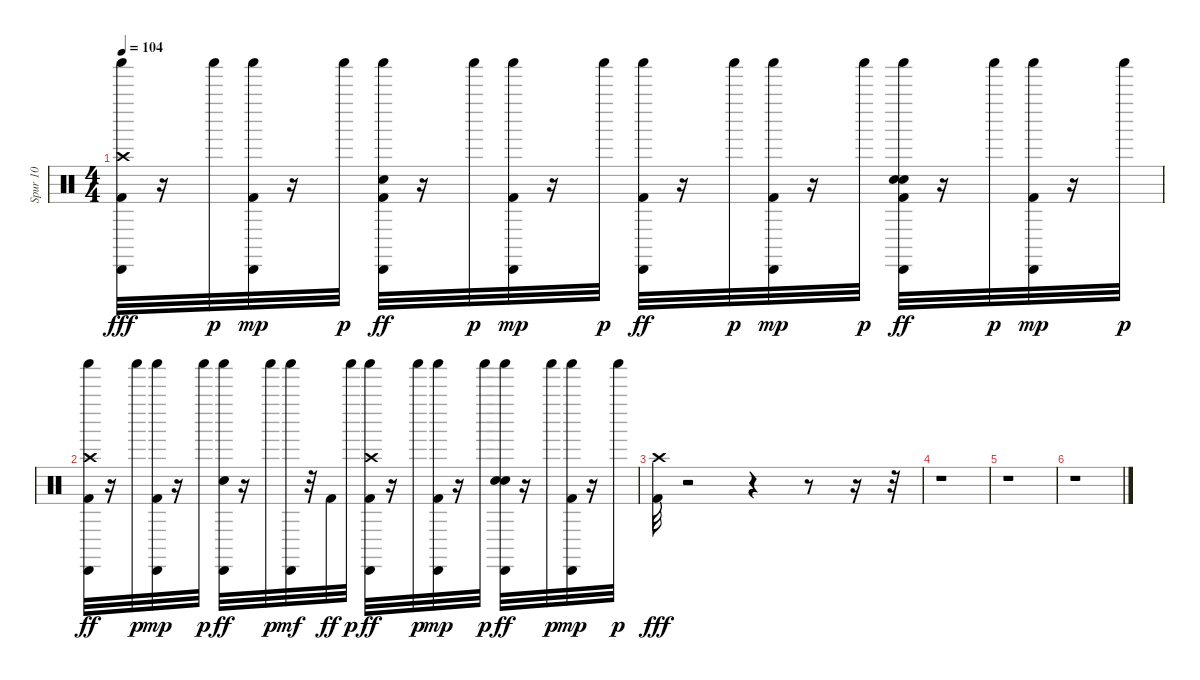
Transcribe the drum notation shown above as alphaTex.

\track ("Spur 10" "Spur 10") {instrument percussion}
\staff {score}
\articulation defaults
\ts (4 4)
\tempo 104
\clef neutral
\ks c
("Crash high (hit)" "Kick (hit) 2" "Cabasa (hit)" "Shaker (hit)").32{dy fff} r.16 "Shaker (hit)".32{dy p} ("Kick (hit) 2" "Cabasa (hit)" "Shaker (hit)").32{dy mp} r.16 "Shaker (hit)".32{dy p} ("Kick (hit) 2" "Snare (hit) 2" "Cabasa (hit)" "Shaker (hit)").32{dy ff} r.16 "Shaker (hit)".32{dy p} ("Kick (hit) 2" "Cabasa (hit)" "Shaker (hit)").32{dy mp} r.16 "Shaker (hit)".32{dy p} ("Kick (hit) 2" "Cabasa (hit)" "Shaker (hit)").32{dy ff} r.16 "Shaker (hit)".32{dy p} ("Kick (hit) 2" "Cabasa (hit)" "Shaker (hit)").32{dy mp} r.16 "Shaker (hit)".32{dy p} ("Kick (hit) 2" "Snare (hit) 2" "Hand Clap (hit)" "Cabasa (hit)" "Shaker (hit)").32{dy ff} r.16 "Shaker (hit)".32{dy p} ("Kick (hit) 2" "Cabasa (hit)" "Shaker (hit)").32{dy mp} r.16 "Shaker (hit)".32{dy p} |
("Crash high (hit)" "Kick (hit) 2" "Cabasa (hit)" "Shaker (hit)").32{dy ff} r.16 "Shaker (hit)".32{dy p} ("Kick (hit) 2" "Cabasa (hit)" "Shaker (hit)").32{dy mp} r.16 "Shaker (hit)".32{dy p} ("Snare (hit) 2" "Cabasa (hit)" "Shaker (hit)").32{dy ff} r.16 "Shaker (hit)".32{dy p} ("Cabasa (hit)" "Shaker (hit)").32{dy mf} r.32 "Kick (hit) 2".32{dy ff} "Shaker (hit)".32{dy p} ("Crash high (hit)" "Kick (hit) 2" "Cabasa (hit)" "Shaker (hit)").32{dy ff} r.16 "Shaker (hit)".32{dy p} ("Kick (hit) 2" "Cabasa (hit)" "Shaker (hit)").32{dy mp} r.16 "Shaker (hit)".32{dy p} ("Snare (hit) 2" "Hand Clap (hit)" "Cabasa (hit)" "Shaker (hit)").32{dy ff} r.16 "Shaker (hit)".32{dy p} ("Kick (hit) 2" "Cabasa (hit)" "Shaker (hit)").32{dy mp} r.16 "Shaker (hit)".32{dy p} |
("Crash high (hit)" "Kick (hit) 2").32{dy fff} r.2 r.4 r.8 r.16 r.32 |
r.1 |
r.1 |
r.1
